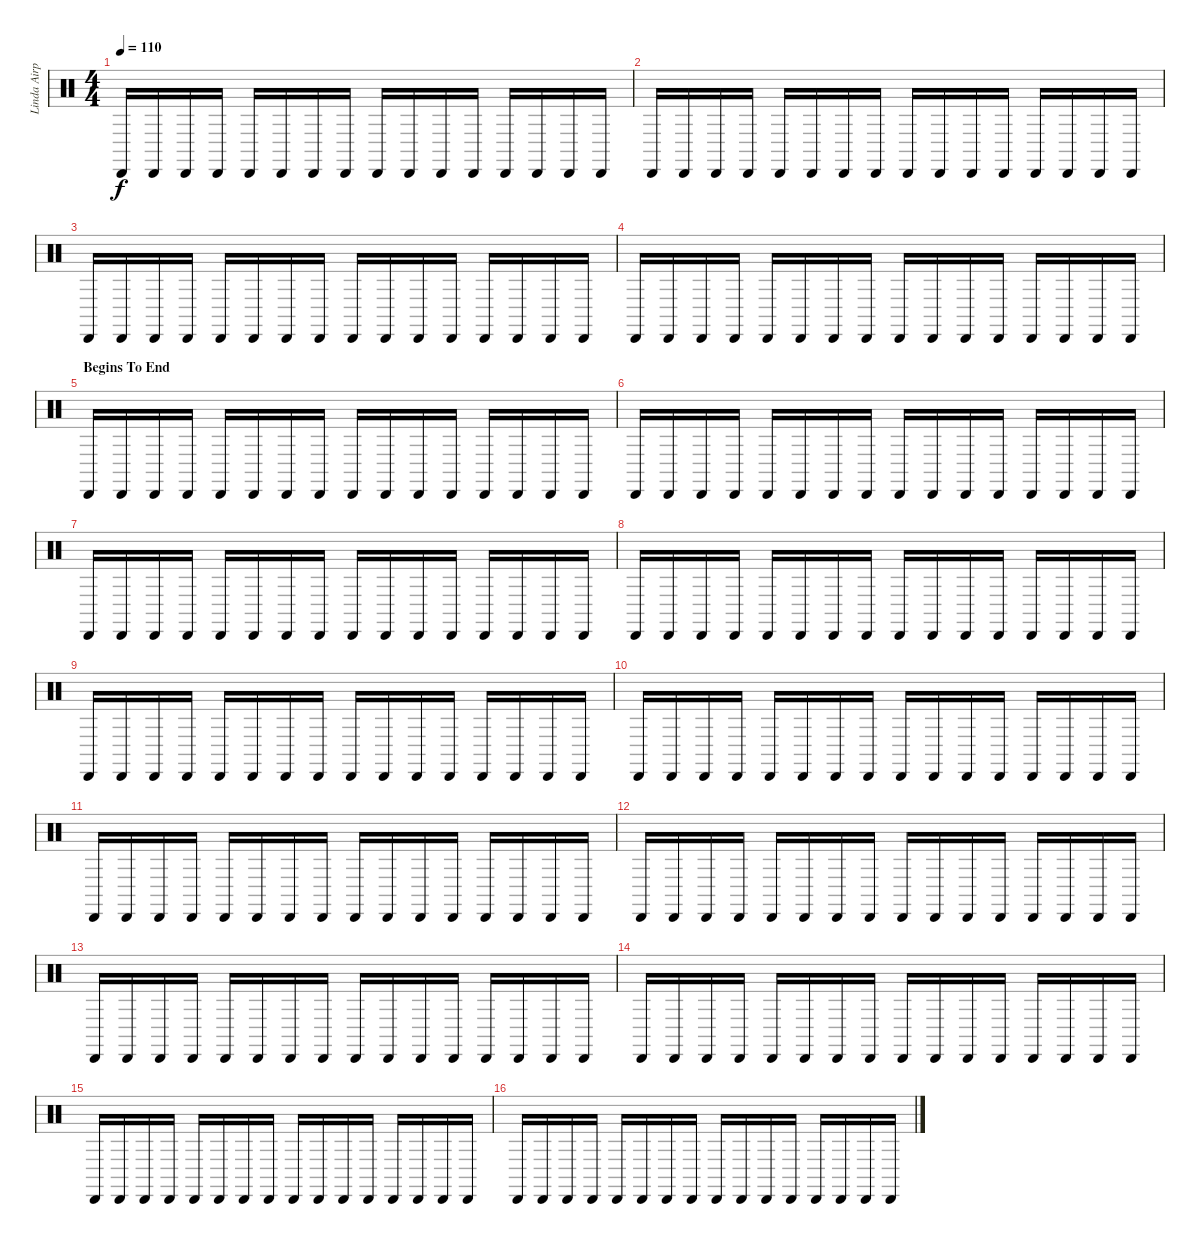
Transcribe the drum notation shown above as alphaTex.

\track ("Linda Airplane" "Linda Airp") {instrument percussion}
\staff {score}
\articulation defaults
\ts (4 4)
\tempo 110
\clef neutral
\ks c "Cabasa (hit)".16{dy f} "Cabasa (hit)".16 "Cabasa (hit)".16 "Cabasa (hit)".16 "Cabasa (hit)".16 "Cabasa (hit)".16 "Cabasa (hit)".16 "Cabasa (hit)".16 "Cabasa (hit)".16 "Cabasa (hit)".16 "Cabasa (hit)".16 "Cabasa (hit)".16 "Cabasa (hit)".16 "Cabasa (hit)".16 "Cabasa (hit)".16 "Cabasa (hit)".16
|
"Cabasa (hit)".16 "Cabasa (hit)".16 "Cabasa (hit)".16 "Cabasa (hit)".16 "Cabasa (hit)".16 "Cabasa (hit)".16 "Cabasa (hit)".16 "Cabasa (hit)".16 "Cabasa (hit)".16 "Cabasa (hit)".16 "Cabasa (hit)".16 "Cabasa (hit)".16 "Cabasa (hit)".16 "Cabasa (hit)".16 "Cabasa (hit)".16 "Cabasa (hit)".16 |
"Cabasa (hit)".16 "Cabasa (hit)".16 "Cabasa (hit)".16 "Cabasa (hit)".16 "Cabasa (hit)".16 "Cabasa (hit)".16 "Cabasa (hit)".16 "Cabasa (hit)".16 "Cabasa (hit)".16 "Cabasa (hit)".16 "Cabasa (hit)".16 "Cabasa (hit)".16 "Cabasa (hit)".16 "Cabasa (hit)".16 "Cabasa (hit)".16 "Cabasa (hit)".16 |
"Cabasa (hit)".16 "Cabasa (hit)".16 "Cabasa (hit)".16 "Cabasa (hit)".16 "Cabasa (hit)".16 "Cabasa (hit)".16 "Cabasa (hit)".16 "Cabasa (hit)".16 "Cabasa (hit)".16 "Cabasa (hit)".16 "Cabasa (hit)".16 "Cabasa (hit)".16 "Cabasa (hit)".16 "Cabasa (hit)".16 "Cabasa (hit)".16 "Cabasa (hit)".16 |
\section ("" "Begins To End")
"Cabasa (hit)".16 "Cabasa (hit)".16 "Cabasa (hit)".16 "Cabasa (hit)".16 "Cabasa (hit)".16 "Cabasa (hit)".16 "Cabasa (hit)".16 "Cabasa (hit)".16 "Cabasa (hit)".16 "Cabasa (hit)".16 "Cabasa (hit)".16 "Cabasa (hit)".16 "Cabasa (hit)".16 "Cabasa (hit)".16 "Cabasa (hit)".16 "Cabasa (hit)".16 |
"Cabasa (hit)".16 "Cabasa (hit)".16 "Cabasa (hit)".16 "Cabasa (hit)".16 "Cabasa (hit)".16 "Cabasa (hit)".16 "Cabasa (hit)".16 "Cabasa (hit)".16 "Cabasa (hit)".16 "Cabasa (hit)".16 "Cabasa (hit)".16 "Cabasa (hit)".16 "Cabasa (hit)".16 "Cabasa (hit)".16 "Cabasa (hit)".16 "Cabasa (hit)".16 |
"Cabasa (hit)".16 "Cabasa (hit)".16 "Cabasa (hit)".16 "Cabasa (hit)".16 "Cabasa (hit)".16 "Cabasa (hit)".16 "Cabasa (hit)".16 "Cabasa (hit)".16 "Cabasa (hit)".16 "Cabasa (hit)".16 "Cabasa (hit)".16 "Cabasa (hit)".16 "Cabasa (hit)".16 "Cabasa (hit)".16 "Cabasa (hit)".16 "Cabasa (hit)".16 |
"Cabasa (hit)".16 "Cabasa (hit)".16 "Cabasa (hit)".16 "Cabasa (hit)".16 "Cabasa (hit)".16 "Cabasa (hit)".16 "Cabasa (hit)".16 "Cabasa (hit)".16 "Cabasa (hit)".16 "Cabasa (hit)".16 "Cabasa (hit)".16 "Cabasa (hit)".16 "Cabasa (hit)".16 "Cabasa (hit)".16 "Cabasa (hit)".16 "Cabasa (hit)".16 |
"Cabasa (hit)".16 "Cabasa (hit)".16 "Cabasa (hit)".16 "Cabasa (hit)".16 "Cabasa (hit)".16 "Cabasa (hit)".16 "Cabasa (hit)".16 "Cabasa (hit)".16 "Cabasa (hit)".16 "Cabasa (hit)".16 "Cabasa (hit)".16 "Cabasa (hit)".16 "Cabasa (hit)".16 "Cabasa (hit)".16 "Cabasa (hit)".16 "Cabasa (hit)".16 |
"Cabasa (hit)".16 "Cabasa (hit)".16 "Cabasa (hit)".16 "Cabasa (hit)".16 "Cabasa (hit)".16 "Cabasa (hit)".16 "Cabasa (hit)".16 "Cabasa (hit)".16 "Cabasa (hit)".16 "Cabasa (hit)".16 "Cabasa (hit)".16 "Cabasa (hit)".16 "Cabasa (hit)".16 "Cabasa (hit)".16 "Cabasa (hit)".16 "Cabasa (hit)".16 |
"Cabasa (hit)".16 "Cabasa (hit)".16 "Cabasa (hit)".16 "Cabasa (hit)".16 "Cabasa (hit)".16 "Cabasa (hit)".16 "Cabasa (hit)".16 "Cabasa (hit)".16 "Cabasa (hit)".16 "Cabasa (hit)".16 "Cabasa (hit)".16 "Cabasa (hit)".16 "Cabasa (hit)".16 "Cabasa (hit)".16 "Cabasa (hit)".16 "Cabasa (hit)".16 |
"Cabasa (hit)".16 "Cabasa (hit)".16 "Cabasa (hit)".16 "Cabasa (hit)".16 "Cabasa (hit)".16 "Cabasa (hit)".16 "Cabasa (hit)".16 "Cabasa (hit)".16 "Cabasa (hit)".16 "Cabasa (hit)".16 "Cabasa (hit)".16 "Cabasa (hit)".16 "Cabasa (hit)".16 "Cabasa (hit)".16 "Cabasa (hit)".16 "Cabasa (hit)".16 |
"Cabasa (hit)".16 "Cabasa (hit)".16 "Cabasa (hit)".16 "Cabasa (hit)".16 "Cabasa (hit)".16 "Cabasa (hit)".16 "Cabasa (hit)".16 "Cabasa (hit)".16 "Cabasa (hit)".16 "Cabasa (hit)".16 "Cabasa (hit)".16 "Cabasa (hit)".16 "Cabasa (hit)".16 "Cabasa (hit)".16 "Cabasa (hit)".16 "Cabasa (hit)".16 |
"Cabasa (hit)".16 "Cabasa (hit)".16 "Cabasa (hit)".16 "Cabasa (hit)".16 "Cabasa (hit)".16 "Cabasa (hit)".16 "Cabasa (hit)".16 "Cabasa (hit)".16 "Cabasa (hit)".16 "Cabasa (hit)".16 "Cabasa (hit)".16 "Cabasa (hit)".16 "Cabasa (hit)".16 "Cabasa (hit)".16 "Cabasa (hit)".16 "Cabasa (hit)".16 |
"Cabasa (hit)".16 "Cabasa (hit)".16 "Cabasa (hit)".16 "Cabasa (hit)".16 "Cabasa (hit)".16 "Cabasa (hit)".16 "Cabasa (hit)".16 "Cabasa (hit)".16 "Cabasa (hit)".16 "Cabasa (hit)".16 "Cabasa (hit)".16 "Cabasa (hit)".16 "Cabasa (hit)".16 "Cabasa (hit)".16 "Cabasa (hit)".16 "Cabasa (hit)".16 |
"Cabasa (hit)".16 "Cabasa (hit)".16 "Cabasa (hit)".16 "Cabasa (hit)".16 "Cabasa (hit)".16 "Cabasa (hit)".16 "Cabasa (hit)".16 "Cabasa (hit)".16 "Cabasa (hit)".16 "Cabasa (hit)".16 "Cabasa (hit)".16 "Cabasa (hit)".16 "Cabasa (hit)".16 "Cabasa (hit)".16 "Cabasa (hit)".16 "Cabasa (hit)".16
